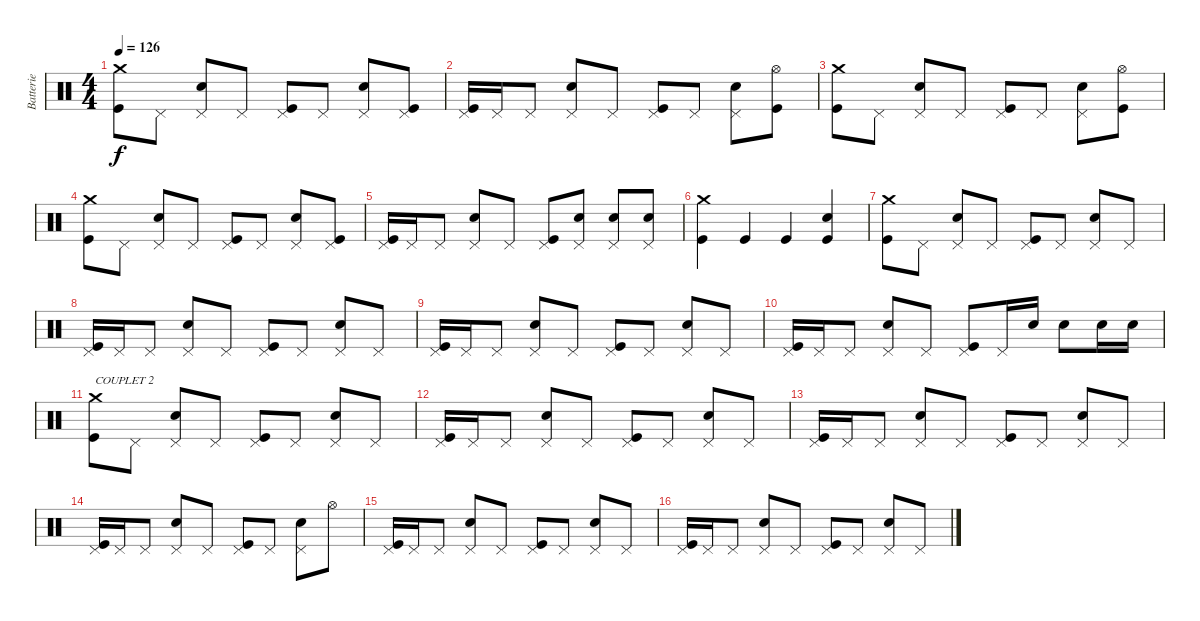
\track ("Batterie" "Batterie") {instrument percussion}
\staff {score}
\articulation defaults
\ts (4 4)
\tempo 126
\clef neutral
\ks c
("Crash medium (hit)" "Kick (hit)").8{dy f} "Pedal Hi-Hat (hit)".8 ("Pedal Hi-Hat (hit)" "Snare (hit) 2").8 "Pedal Hi-Hat (hit)".8 ("Pedal Hi-Hat (hit)" "Kick (hit)").8 "Pedal Hi-Hat (hit)".8 ("Pedal Hi-Hat (hit)" "Snare (hit) 2").8 ("Pedal Hi-Hat (hit)" "Kick (hit)").8 |
("Pedal Hi-Hat (hit)" "Kick (hit)").16 "Pedal Hi-Hat (hit)".16 "Pedal Hi-Hat (hit)".8 ("Pedal Hi-Hat (hit)" "Snare (hit) 2").8 "Pedal Hi-Hat (hit)".8 ("Pedal Hi-Hat (hit)" "Kick (hit)").8 "Pedal Hi-Hat (hit)".8 ("Pedal Hi-Hat (hit)" "Snare (hit) 2").8 ("Hi-Hat (open)" "Kick (hit)").8 |
("Crash medium (hit)" "Kick (hit)").8 "Pedal Hi-Hat (hit)".8 ("Pedal Hi-Hat (hit)" "Snare (hit) 2").8 "Pedal Hi-Hat (hit)".8 ("Pedal Hi-Hat (hit)" "Kick (hit)").8 "Pedal Hi-Hat (hit)".8 ("Pedal Hi-Hat (hit)" "Snare (hit) 2").8 ("Hi-Hat (open)" "Kick (hit)").8 |
("Crash medium (hit)" "Kick (hit)").8 "Pedal Hi-Hat (hit)".8 ("Pedal Hi-Hat (hit)" "Snare (hit) 2").8 "Pedal Hi-Hat (hit)".8 ("Pedal Hi-Hat (hit)" "Kick (hit)").8 "Pedal Hi-Hat (hit)".8 ("Pedal Hi-Hat (hit)" "Snare (hit) 2").8 ("Pedal Hi-Hat (hit)" "Kick (hit)").8 |
("Pedal Hi-Hat (hit)" "Kick (hit)").16 "Pedal Hi-Hat (hit)".16 "Pedal Hi-Hat (hit)".8 ("Pedal Hi-Hat (hit)" "Snare (hit) 2").8 "Pedal Hi-Hat (hit)".8 ("Pedal Hi-Hat (hit)" "Kick (hit)").8 ("Pedal Hi-Hat (hit)" "Snare (hit) 2").8 ("Pedal Hi-Hat (hit)" "Snare (hit) 2").8 ("Pedal Hi-Hat (hit)" "Snare (hit) 2").8 |
("Crash medium (hit)" "Kick (hit)").4 "Kick (hit)".4 "Kick (hit)".4 ("Snare (hit) 2" "Kick (hit)").4 |
("Crash medium (hit)" "Kick (hit)").8 "Pedal Hi-Hat (hit)".8 ("Pedal Hi-Hat (hit)" "Snare (hit) 2").8 "Pedal Hi-Hat (hit)".8 ("Pedal Hi-Hat (hit)" "Kick (hit)").8 "Pedal Hi-Hat (hit)".8 ("Pedal Hi-Hat (hit)" "Snare (hit) 2").8 "Pedal Hi-Hat (hit)".8 |
("Pedal Hi-Hat (hit)" "Kick (hit)").16 "Pedal Hi-Hat (hit)".16 "Pedal Hi-Hat (hit)".8 ("Pedal Hi-Hat (hit)" "Snare (hit) 2").8 "Pedal Hi-Hat (hit)".8 ("Pedal Hi-Hat (hit)" "Kick (hit)").8 "Pedal Hi-Hat (hit)".8 ("Pedal Hi-Hat (hit)" "Snare (hit) 2").8 "Pedal Hi-Hat (hit)".8 |
("Pedal Hi-Hat (hit)" "Kick (hit)").16 "Pedal Hi-Hat (hit)".16 "Pedal Hi-Hat (hit)".8 ("Pedal Hi-Hat (hit)" "Snare (hit) 2").8 "Pedal Hi-Hat (hit)".8 ("Pedal Hi-Hat (hit)" "Kick (hit)").8 "Pedal Hi-Hat (hit)".8 ("Pedal Hi-Hat (hit)" "Snare (hit) 2").8 "Pedal Hi-Hat (hit)".8 |
("Pedal Hi-Hat (hit)" "Kick (hit)").16 "Pedal Hi-Hat (hit)".16 "Pedal Hi-Hat (hit)".8 ("Pedal Hi-Hat (hit)" "Snare (hit) 2").8 "Pedal Hi-Hat (hit)".8 ("Pedal Hi-Hat (hit)" "Kick (hit)").8 "Pedal Hi-Hat (hit)".16 "Snare (hit) 2".16 "Snare (hit) 2".8 "Snare (hit) 2".16 "Snare (hit) 2".16 |
("Crash medium (hit)" "Kick (hit)").8{txt "COUPLET 2"} "Pedal Hi-Hat (hit)".8 ("Pedal Hi-Hat (hit)" "Snare (hit) 2").8 "Pedal Hi-Hat (hit)".8 ("Pedal Hi-Hat (hit)" "Kick (hit)").8 "Pedal Hi-Hat (hit)".8 ("Pedal Hi-Hat (hit)" "Snare (hit) 2").8 "Pedal Hi-Hat (hit)".8 |
("Pedal Hi-Hat (hit)" "Kick (hit)").16 "Pedal Hi-Hat (hit)".16 "Pedal Hi-Hat (hit)".8 ("Pedal Hi-Hat (hit)" "Snare (hit) 2").8 "Pedal Hi-Hat (hit)".8 ("Pedal Hi-Hat (hit)" "Kick (hit)").8 "Pedal Hi-Hat (hit)".8 ("Pedal Hi-Hat (hit)" "Snare (hit) 2").8 "Pedal Hi-Hat (hit)".8 |
("Pedal Hi-Hat (hit)" "Kick (hit)").16 "Pedal Hi-Hat (hit)".16 "Pedal Hi-Hat (hit)".8 ("Pedal Hi-Hat (hit)" "Snare (hit) 2").8 "Pedal Hi-Hat (hit)".8 ("Pedal Hi-Hat (hit)" "Kick (hit)").8 "Pedal Hi-Hat (hit)".8 ("Pedal Hi-Hat (hit)" "Snare (hit) 2").8 "Pedal Hi-Hat (hit)".8 |
("Pedal Hi-Hat (hit)" "Kick (hit)").16 "Pedal Hi-Hat (hit)".16 "Pedal Hi-Hat (hit)".8 ("Pedal Hi-Hat (hit)" "Snare (hit) 2").8 "Pedal Hi-Hat (hit)".8 ("Pedal Hi-Hat (hit)" "Kick (hit)").8 "Pedal Hi-Hat (hit)".8 ("Pedal Hi-Hat (hit)" "Snare (hit) 2").8 "Hi-Hat (open)".8 |
("Pedal Hi-Hat (hit)" "Kick (hit)").16 "Pedal Hi-Hat (hit)".16 "Pedal Hi-Hat (hit)".8 ("Pedal Hi-Hat (hit)" "Snare (hit) 2").8 "Pedal Hi-Hat (hit)".8 ("Pedal Hi-Hat (hit)" "Kick (hit)").8 "Pedal Hi-Hat (hit)".8 ("Pedal Hi-Hat (hit)" "Snare (hit) 2").8 "Pedal Hi-Hat (hit)".8 |
("Pedal Hi-Hat (hit)" "Kick (hit)").16 "Pedal Hi-Hat (hit)".16 "Pedal Hi-Hat (hit)".8 ("Pedal Hi-Hat (hit)" "Snare (hit) 2").8 "Pedal Hi-Hat (hit)".8 ("Pedal Hi-Hat (hit)" "Kick (hit)").8 "Pedal Hi-Hat (hit)".8 ("Pedal Hi-Hat (hit)" "Snare (hit) 2").8 "Pedal Hi-Hat (hit)".8
